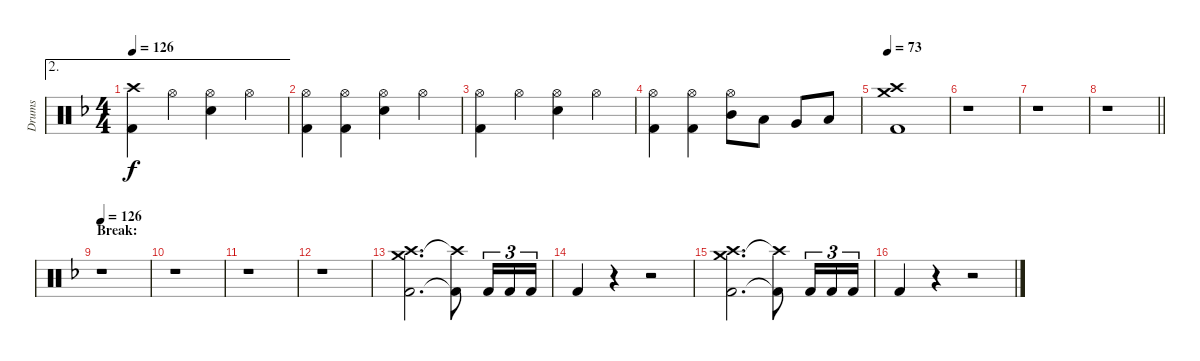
\track ("Drums" "Drums") {instrument percussion}
\staff {score}
\articulation defaults
\ae 2
\ts (4 4)
\section ("" "")
\tempo 126
\clef neutral
\ks dminor
("Crash high (hit)" "Kick (hit) 2").4{dy f} "Hi-Hat (open)".4 ("Hi-Hat (open)" "Electric Snare (hit)").4 "Hi-Hat (open)".4 |
("Hi-Hat (open)" "Kick (hit) 2").4 ("Hi-Hat (open)" "Kick (hit) 2").4 ("Hi-Hat (open)" "Electric Snare (hit)").4 "Hi-Hat (open)".4 |
("Hi-Hat (open)" "Kick (hit) 2").4 "Hi-Hat (open)".4 ("Hi-Hat (open)" "Electric Snare (hit)").4 "Hi-Hat (open)".4 |
("Hi-Hat (open)" "Kick (hit) 2").4 ("Hi-Hat (open)" "Kick (hit) 2").4 ("Hi-Hat (open)" "Mid Tom (hit)").8 "Low Tom (hit)".8 "Very Low Tom (hit)".8 "Low Floor Tom (hit)".8 |
\tempo 73
("Crash medium (hit)" "Crash high (hit)" "Kick (hit) 2").1 |
r.1 |
r.1 |
\barLineRight lightlight
r.1 |
\section ("" "Break:")
\tempo 126
r.1 |
r.1 |
r.1 |
r.1 |
("Kick (hit) 2" "Crash medium (hit)" "Crash high (hit)").2{d} ("Kick (hit) 2"{t} "Crash high (hit)"{t}).8 "Kick (hit) 2".16{tu (3 2)} "Kick (hit) 2".16{tu (3 2)} "Kick (hit) 2".16{tu (3 2)} |
"Kick (hit) 2".4 r.4 r.2 |
("Kick (hit) 2" "Crash medium (hit)" "Crash high (hit)").2{d} ("Kick (hit) 2"{t} "Crash high (hit)"{t}).8 "Kick (hit) 2".16{tu (3 2)} "Kick (hit) 2".16{tu (3 2)} "Kick (hit) 2".16{tu (3 2)} |
"Kick (hit) 2".4 r.4 r.2
